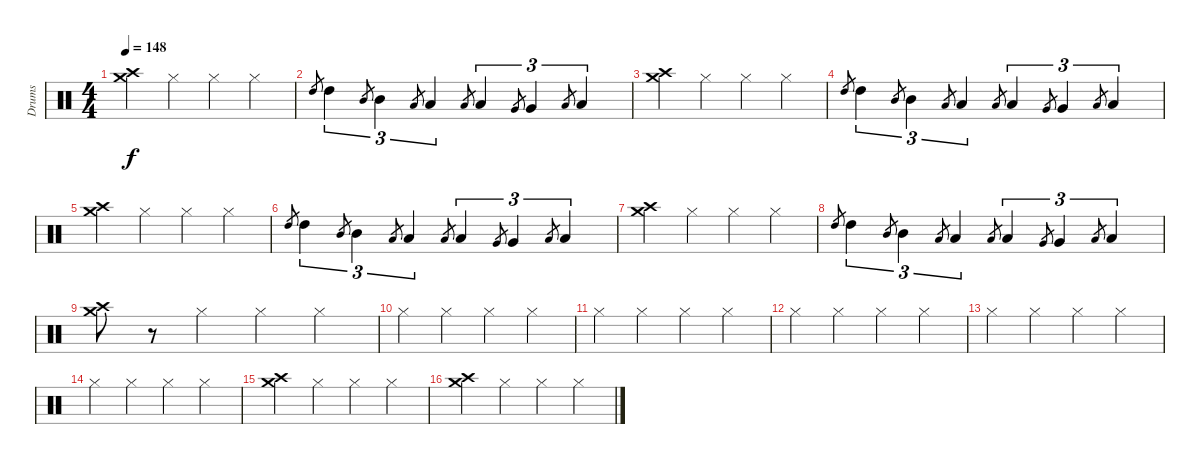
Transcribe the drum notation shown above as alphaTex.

\track ("Drums" "Drums") {instrument percussion}
\staff {score}
\articulation defaults
\ts (4 4)
\tempo 148
\clef neutral
\ks c
("Crash medium (hit)" "Crash high (hit)").4{dy f} "Hi-Hat (closed)".4 "Hi-Hat (closed)".4 "Hi-Hat (closed)".4 |
"High Tom (hit)".8{gr} "High Tom (hit)".4{tu (3 2)} "Mid Tom (hit)".8{gr} "Mid Tom (hit)".4{tu (3 2)} "Low Tom (hit)".8{gr} "Low Tom (hit)".4{tu (3 2)} "Low Tom (hit)".8{gr} "Low Tom (hit)".4{tu (3 2)} "Very Low Tom (hit)".8{gr} "Very Low Tom (hit)".4{tu (3 2)} "Low Floor Tom (hit)".8{gr} "Low Floor Tom (hit)".4{tu (3 2)} |
("Crash medium (hit)" "Crash high (hit)").4 "Hi-Hat (closed)".4 "Hi-Hat (closed)".4 "Hi-Hat (closed)".4 |
"High Tom (hit)".8{gr} "High Tom (hit)".4{tu (3 2)} "Mid Tom (hit)".8{gr} "Mid Tom (hit)".4{tu (3 2)} "Low Tom (hit)".8{gr} "Low Tom (hit)".4{tu (3 2)} "Low Tom (hit)".8{gr} "Low Tom (hit)".4{tu (3 2)} "Very Low Tom (hit)".8{gr} "Very Low Tom (hit)".4{tu (3 2)} "Low Floor Tom (hit)".8{gr} "Low Floor Tom (hit)".4{tu (3 2)} |
("Crash medium (hit)" "Crash high (hit)").4 "Hi-Hat (closed)".4 "Hi-Hat (closed)".4 "Hi-Hat (closed)".4 |
"High Tom (hit)".8{gr} "High Tom (hit)".4{tu (3 2)} "Mid Tom (hit)".8{gr} "Mid Tom (hit)".4{tu (3 2)} "Low Tom (hit)".8{gr} "Low Tom (hit)".4{tu (3 2)} "Low Tom (hit)".8{gr} "Low Tom (hit)".4{tu (3 2)} "Very Low Tom (hit)".8{gr} "Very Low Tom (hit)".4{tu (3 2)} "Low Floor Tom (hit)".8{gr} "Low Floor Tom (hit)".4{tu (3 2)} |
("Crash medium (hit)" "Crash high (hit)").4 "Hi-Hat (closed)".4 "Hi-Hat (closed)".4 "Hi-Hat (closed)".4 |
"High Tom (hit)".8{gr} "High Tom (hit)".4{tu (3 2)} "Mid Tom (hit)".8{gr} "Mid Tom (hit)".4{tu (3 2)} "Low Tom (hit)".8{gr} "Low Tom (hit)".4{tu (3 2)} "Low Tom (hit)".8{gr} "Low Tom (hit)".4{tu (3 2)} "Very Low Tom (hit)".8{gr} "Very Low Tom (hit)".4{tu (3 2)} "Low Floor Tom (hit)".8{gr} "Low Floor Tom (hit)".4{tu (3 2)} |
("Crash medium (hit)" "Crash high (hit)").8 r.8 "Hi-Hat (closed)".4 "Hi-Hat (closed)".4 "Hi-Hat (closed)".4 |
"Hi-Hat (closed)".4 "Hi-Hat (closed)".4 "Hi-Hat (closed)".4 "Hi-Hat (closed)".4 |
"Hi-Hat (closed)".4 "Hi-Hat (closed)".4 "Hi-Hat (closed)".4 "Hi-Hat (closed)".4 |
"Hi-Hat (closed)".4 "Hi-Hat (closed)".4 "Hi-Hat (closed)".4 "Hi-Hat (closed)".4 |
"Hi-Hat (closed)".4 "Hi-Hat (closed)".4 "Hi-Hat (closed)".4 "Hi-Hat (closed)".4 |
"Hi-Hat (closed)".4 "Hi-Hat (closed)".4 "Hi-Hat (closed)".4 "Hi-Hat (closed)".4 |
("Crash high (hit)" "Crash medium (hit)").4 "Hi-Hat (closed)".4 "Hi-Hat (closed)".4 "Hi-Hat (closed)".4 |
("Crash high (hit)" "Crash medium (hit)").4 "Hi-Hat (closed)".4 "Hi-Hat (closed)".4 "Hi-Hat (closed)".4
